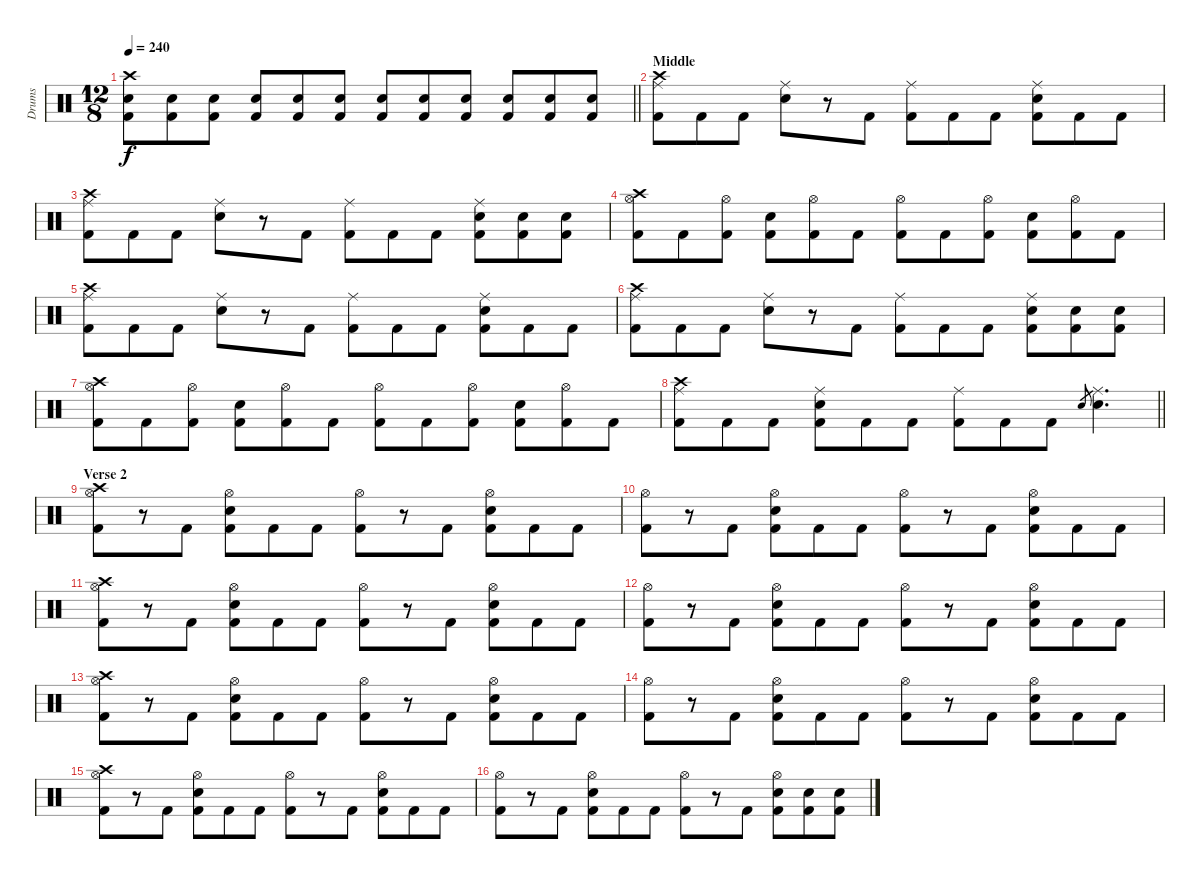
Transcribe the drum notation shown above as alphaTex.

\track ("Drums" "Drums") {instrument percussion}
\staff {score}
\articulation defaults
\ts (12 8)
\tempo 240
\clef neutral
\barLineRight lightlight
\ks c
("Crash high (hit)" "Snare (hit) 2" "Kick (hit) 2").8{dy f} ("Snare (hit) 2" "Kick (hit) 2").8 ("Snare (hit) 2" "Kick (hit) 2").8 ("Snare (hit) 2" "Kick (hit) 2").8 ("Snare (hit) 2" "Kick (hit) 2").8 ("Snare (hit) 2" "Kick (hit) 2").8 ("Snare (hit) 2" "Kick (hit) 2").8 ("Snare (hit) 2" "Kick (hit) 2").8 ("Snare (hit) 2" "Kick (hit) 2").8 ("Snare (hit) 2" "Kick (hit) 2").8 ("Snare (hit) 2" "Kick (hit) 2").8 ("Snare (hit) 2" "Kick (hit) 2").8 |
\section ("" "Middle")
("Crash high (hit)" "Ride (middle)" "Kick (hit) 2").8 "Kick (hit) 2".8 "Kick (hit) 2".8 ("Ride (middle)" "Snare (hit) 2").8 r.8 "Kick (hit) 2".8 ("Ride (middle)" "Kick (hit) 2").8 "Kick (hit) 2".8 "Kick (hit) 2".8 ("Ride (middle)" "Snare (hit) 2" "Kick (hit) 2").8 "Kick (hit) 2".8 "Kick (hit) 2".8 |
("Crash high (hit)" "Ride (middle)" "Kick (hit) 2").8 "Kick (hit) 2".8 "Kick (hit) 2".8 ("Ride (middle)" "Snare (hit) 2").8 r.8 "Kick (hit) 2".8 ("Ride (middle)" "Kick (hit) 2").8 "Kick (hit) 2".8 "Kick (hit) 2".8 ("Ride (middle)" "Snare (hit) 2" "Kick (hit) 2").8 ("Snare (hit) 2" "Kick (hit) 2").8 ("Snare (hit) 2" "Kick (hit) 2").8 |
("Crash high (hit)" "Hi-Hat (open)" "Kick (hit) 2").8 "Kick (hit) 2".8 ("Hi-Hat (open)" "Kick (hit) 2").8 ("Snare (hit) 2" "Kick (hit) 2").8 ("Hi-Hat (open)" "Kick (hit) 2").8 "Kick (hit) 2".8 ("Hi-Hat (open)" "Kick (hit) 2").8 "Kick (hit) 2".8 ("Hi-Hat (open)" "Kick (hit) 2").8 ("Snare (hit) 2" "Kick (hit) 2").8 ("Hi-Hat (open)" "Kick (hit) 2").8 "Kick (hit) 2".8 |
("Crash high (hit)" "Ride (middle)" "Kick (hit) 2").8 "Kick (hit) 2".8 "Kick (hit) 2".8 ("Ride (middle)" "Snare (hit) 2").8 r.8 "Kick (hit) 2".8 ("Ride (middle)" "Kick (hit) 2").8 "Kick (hit) 2".8 "Kick (hit) 2".8 ("Ride (middle)" "Snare (hit) 2" "Kick (hit) 2").8 "Kick (hit) 2".8 "Kick (hit) 2".8 |
("Crash high (hit)" "Ride (middle)" "Kick (hit) 2").8 "Kick (hit) 2".8 "Kick (hit) 2".8 ("Ride (middle)" "Snare (hit) 2").8 r.8 "Kick (hit) 2".8 ("Ride (middle)" "Kick (hit) 2").8 "Kick (hit) 2".8 "Kick (hit) 2".8 ("Ride (middle)" "Snare (hit) 2" "Kick (hit) 2").8 ("Snare (hit) 2" "Kick (hit) 2").8 ("Snare (hit) 2" "Kick (hit) 2").8 |
("Crash high (hit)" "Hi-Hat (open)" "Kick (hit) 2").8 "Kick (hit) 2".8 ("Hi-Hat (open)" "Kick (hit) 2").8 ("Snare (hit) 2" "Kick (hit) 2").8 ("Hi-Hat (open)" "Kick (hit) 2").8 "Kick (hit) 2".8 ("Hi-Hat (open)" "Kick (hit) 2").8 "Kick (hit) 2".8 ("Hi-Hat (open)" "Kick (hit) 2").8 ("Snare (hit) 2" "Kick (hit) 2").8 ("Hi-Hat (open)" "Kick (hit) 2").8 "Kick (hit) 2".8 |
\barLineRight lightlight
("Crash high (hit)" "Ride (middle)" "Kick (hit) 2").8 "Kick (hit) 2".8 "Kick (hit) 2".8 ("Ride (middle)" "Snare (hit) 2" "Kick (hit) 2").8 "Kick (hit) 2".8 "Kick (hit) 2".8 ("Ride (middle)" "Kick (hit) 2").8 "Kick (hit) 2".8 "Kick (hit) 2".8 "Snare (hit) 2".8{gr} ("Ride (middle)" "Snare (hit) 2").4{d} |
\section ("" "Verse 2")
("Crash high (hit)" "Hi-Hat (open)" "Kick (hit) 2").8 r.8 "Kick (hit) 2".8 ("Hi-Hat (open)" "Snare (hit) 2" "Kick (hit) 2").8 "Kick (hit) 2".8 "Kick (hit) 2".8 ("Hi-Hat (open)" "Kick (hit) 2").8 r.8 "Kick (hit) 2".8 ("Hi-Hat (open)" "Snare (hit) 2" "Kick (hit) 2").8 "Kick (hit) 2".8 "Kick (hit) 2".8 |
("Hi-Hat (open)" "Kick (hit) 2").8 r.8 "Kick (hit) 2".8 ("Hi-Hat (open)" "Snare (hit) 2" "Kick (hit) 2").8 "Kick (hit) 2".8 "Kick (hit) 2".8 ("Hi-Hat (open)" "Kick (hit) 2").8 r.8 "Kick (hit) 2".8 ("Hi-Hat (open)" "Snare (hit) 2" "Kick (hit) 2").8 "Kick (hit) 2".8 "Kick (hit) 2".8 |
("Crash high (hit)" "Hi-Hat (open)" "Kick (hit) 2").8 r.8 "Kick (hit) 2".8 ("Hi-Hat (open)" "Snare (hit) 2" "Kick (hit) 2").8 "Kick (hit) 2".8 "Kick (hit) 2".8 ("Hi-Hat (open)" "Kick (hit) 2").8 r.8 "Kick (hit) 2".8 ("Hi-Hat (open)" "Snare (hit) 2" "Kick (hit) 2").8 "Kick (hit) 2".8 "Kick (hit) 2".8 |
("Hi-Hat (open)" "Kick (hit) 2").8 r.8 "Kick (hit) 2".8 ("Hi-Hat (open)" "Snare (hit) 2" "Kick (hit) 2").8 "Kick (hit) 2".8 "Kick (hit) 2".8 ("Hi-Hat (open)" "Kick (hit) 2").8 r.8 "Kick (hit) 2".8 ("Hi-Hat (open)" "Snare (hit) 2" "Kick (hit) 2").8 "Kick (hit) 2".8 "Kick (hit) 2".8 |
("Crash high (hit)" "Hi-Hat (open)" "Kick (hit) 2").8 r.8 "Kick (hit) 2".8 ("Hi-Hat (open)" "Snare (hit) 2" "Kick (hit) 2").8 "Kick (hit) 2".8 "Kick (hit) 2".8 ("Hi-Hat (open)" "Kick (hit) 2").8 r.8 "Kick (hit) 2".8 ("Hi-Hat (open)" "Snare (hit) 2" "Kick (hit) 2").8 "Kick (hit) 2".8 "Kick (hit) 2".8 |
("Hi-Hat (open)" "Kick (hit) 2").8 r.8 "Kick (hit) 2".8 ("Hi-Hat (open)" "Snare (hit) 2" "Kick (hit) 2").8 "Kick (hit) 2".8 "Kick (hit) 2".8 ("Hi-Hat (open)" "Kick (hit) 2").8 r.8 "Kick (hit) 2".8 ("Hi-Hat (open)" "Snare (hit) 2" "Kick (hit) 2").8 "Kick (hit) 2".8 "Kick (hit) 2".8 |
("Crash high (hit)" "Hi-Hat (open)" "Kick (hit) 2").8 r.8 "Kick (hit) 2".8 ("Hi-Hat (open)" "Snare (hit) 2" "Kick (hit) 2").8 "Kick (hit) 2".8 "Kick (hit) 2".8 ("Hi-Hat (open)" "Kick (hit) 2").8 r.8 "Kick (hit) 2".8 ("Hi-Hat (open)" "Snare (hit) 2" "Kick (hit) 2").8 "Kick (hit) 2".8 "Kick (hit) 2".8 |
("Hi-Hat (open)" "Kick (hit) 2").8 r.8 "Kick (hit) 2".8 ("Hi-Hat (open)" "Snare (hit) 2" "Kick (hit) 2").8 "Kick (hit) 2".8 "Kick (hit) 2".8 ("Hi-Hat (open)" "Kick (hit) 2").8 r.8 "Kick (hit) 2".8 ("Hi-Hat (open)" "Snare (hit) 2" "Kick (hit) 2").8 ("Snare (hit) 2" "Kick (hit) 2").8 ("Snare (hit) 2" "Kick (hit) 2").8
